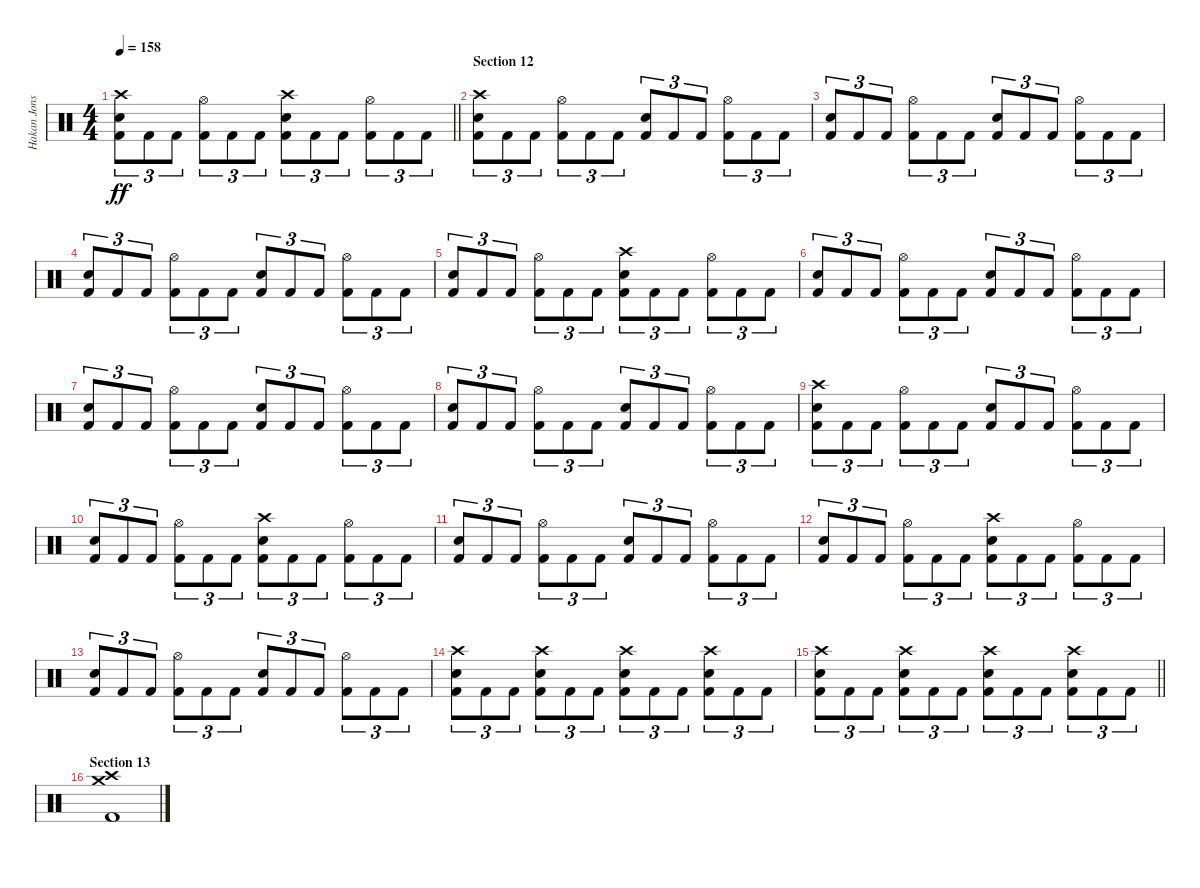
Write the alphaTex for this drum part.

\track ("Hakan Jonsson" "Hakan Jons") {instrument percussion}
\staff {score}
\articulation defaults
\ts (4 4)
\tempo 158
\clef neutral
\barLineRight lightlight
\ks c
("Crash high (hit)" "Electric Snare (hit)" "Kick (hit) 2").8{tu (3 2) dy ff} "Kick (hit) 2".8{tu (3 2)} "Kick (hit) 2".8{tu (3 2)} ("Hi-Hat (open)" "Kick (hit) 2").8{tu (3 2)} "Kick (hit) 2".8{tu (3 2)} "Kick (hit) 2".8{tu (3 2)} ("Crash high (hit)" "Electric Snare (hit)" "Kick (hit) 2").8{tu (3 2)} "Kick (hit) 2".8{tu (3 2)} "Kick (hit) 2".8{tu (3 2)} ("Hi-Hat (open)" "Kick (hit) 2").8{tu (3 2)} "Kick (hit) 2".8{tu (3 2)} "Kick (hit) 2".8{tu (3 2)} |
\section ("" "Section 12")
("Crash high (hit)" "Electric Snare (hit)" "Kick (hit) 2").8{tu (3 2)} "Kick (hit) 2".8{tu (3 2)} "Kick (hit) 2".8{tu (3 2)} ("Hi-Hat (open)" "Kick (hit) 2").8{tu (3 2)} "Kick (hit) 2".8{tu (3 2)} "Kick (hit) 2".8{tu (3 2)} ("Electric Snare (hit)" "Kick (hit) 2").8{tu (3 2)} "Kick (hit) 2".8{tu (3 2)} "Kick (hit) 2".8{tu (3 2)} ("Hi-Hat (open)" "Kick (hit) 2").8{tu (3 2)} "Kick (hit) 2".8{tu (3 2)} "Kick (hit) 2".8{tu (3 2)} |
("Electric Snare (hit)" "Kick (hit) 2").8{tu (3 2)} "Kick (hit) 2".8{tu (3 2)} "Kick (hit) 2".8{tu (3 2)} ("Hi-Hat (open)" "Kick (hit) 2").8{tu (3 2)} "Kick (hit) 2".8{tu (3 2)} "Kick (hit) 2".8{tu (3 2)} ("Electric Snare (hit)" "Kick (hit) 2").8{tu (3 2)} "Kick (hit) 2".8{tu (3 2)} "Kick (hit) 2".8{tu (3 2)} ("Hi-Hat (open)" "Kick (hit) 2").8{tu (3 2)} "Kick (hit) 2".8{tu (3 2)} "Kick (hit) 2".8{tu (3 2)} |
("Electric Snare (hit)" "Kick (hit) 2").8{tu (3 2)} "Kick (hit) 2".8{tu (3 2)} "Kick (hit) 2".8{tu (3 2)} ("Hi-Hat (open)" "Kick (hit) 2").8{tu (3 2)} "Kick (hit) 2".8{tu (3 2)} "Kick (hit) 2".8{tu (3 2)} ("Electric Snare (hit)" "Kick (hit) 2").8{tu (3 2)} "Kick (hit) 2".8{tu (3 2)} "Kick (hit) 2".8{tu (3 2)} ("Hi-Hat (open)" "Kick (hit) 2").8{tu (3 2)} "Kick (hit) 2".8{tu (3 2)} "Kick (hit) 2".8{tu (3 2)} |
("Electric Snare (hit)" "Kick (hit) 2").8{tu (3 2)} "Kick (hit) 2".8{tu (3 2)} "Kick (hit) 2".8{tu (3 2)} ("Hi-Hat (open)" "Kick (hit) 2").8{tu (3 2)} "Kick (hit) 2".8{tu (3 2)} "Kick (hit) 2".8{tu (3 2)} ("Crash high (hit)" "Electric Snare (hit)" "Kick (hit) 2").8{tu (3 2)} "Kick (hit) 2".8{tu (3 2)} "Kick (hit) 2".8{tu (3 2)} ("Hi-Hat (open)" "Kick (hit) 2").8{tu (3 2)} "Kick (hit) 2".8{tu (3 2)} "Kick (hit) 2".8{tu (3 2)} |
("Electric Snare (hit)" "Kick (hit) 2").8{tu (3 2)} "Kick (hit) 2".8{tu (3 2)} "Kick (hit) 2".8{tu (3 2)} ("Hi-Hat (open)" "Kick (hit) 2").8{tu (3 2)} "Kick (hit) 2".8{tu (3 2)} "Kick (hit) 2".8{tu (3 2)} ("Electric Snare (hit)" "Kick (hit) 2").8{tu (3 2)} "Kick (hit) 2".8{tu (3 2)} "Kick (hit) 2".8{tu (3 2)} ("Hi-Hat (open)" "Kick (hit) 2").8{tu (3 2)} "Kick (hit) 2".8{tu (3 2)} "Kick (hit) 2".8{tu (3 2)} |
("Electric Snare (hit)" "Kick (hit) 2").8{tu (3 2)} "Kick (hit) 2".8{tu (3 2)} "Kick (hit) 2".8{tu (3 2)} ("Hi-Hat (open)" "Kick (hit) 2").8{tu (3 2)} "Kick (hit) 2".8{tu (3 2)} "Kick (hit) 2".8{tu (3 2)} ("Electric Snare (hit)" "Kick (hit) 2").8{tu (3 2)} "Kick (hit) 2".8{tu (3 2)} "Kick (hit) 2".8{tu (3 2)} ("Hi-Hat (open)" "Kick (hit) 2").8{tu (3 2)} "Kick (hit) 2".8{tu (3 2)} "Kick (hit) 2".8{tu (3 2)} |
("Electric Snare (hit)" "Kick (hit) 2").8{tu (3 2)} "Kick (hit) 2".8{tu (3 2)} "Kick (hit) 2".8{tu (3 2)} ("Hi-Hat (open)" "Kick (hit) 2").8{tu (3 2)} "Kick (hit) 2".8{tu (3 2)} "Kick (hit) 2".8{tu (3 2)} ("Electric Snare (hit)" "Kick (hit) 2").8{tu (3 2)} "Kick (hit) 2".8{tu (3 2)} "Kick (hit) 2".8{tu (3 2)} ("Hi-Hat (open)" "Kick (hit) 2").8{tu (3 2)} "Kick (hit) 2".8{tu (3 2)} "Kick (hit) 2".8{tu (3 2)} |
("Crash high (hit)" "Electric Snare (hit)" "Kick (hit) 2").8{tu (3 2)} "Kick (hit) 2".8{tu (3 2)} "Kick (hit) 2".8{tu (3 2)} ("Hi-Hat (open)" "Kick (hit) 2").8{tu (3 2)} "Kick (hit) 2".8{tu (3 2)} "Kick (hit) 2".8{tu (3 2)} ("Electric Snare (hit)" "Kick (hit) 2").8{tu (3 2)} "Kick (hit) 2".8{tu (3 2)} "Kick (hit) 2".8{tu (3 2)} ("Hi-Hat (open)" "Kick (hit) 2").8{tu (3 2)} "Kick (hit) 2".8{tu (3 2)} "Kick (hit) 2".8{tu (3 2)} |
("Electric Snare (hit)" "Kick (hit) 2").8{tu (3 2)} "Kick (hit) 2".8{tu (3 2)} "Kick (hit) 2".8{tu (3 2)} ("Hi-Hat (open)" "Kick (hit) 2").8{tu (3 2)} "Kick (hit) 2".8{tu (3 2)} "Kick (hit) 2".8{tu (3 2)} ("Crash high (hit)" "Electric Snare (hit)" "Kick (hit) 2").8{tu (3 2)} "Kick (hit) 2".8{tu (3 2)} "Kick (hit) 2".8{tu (3 2)} ("Hi-Hat (open)" "Kick (hit) 2").8{tu (3 2)} "Kick (hit) 2".8{tu (3 2)} "Kick (hit) 2".8{tu (3 2)} |
("Electric Snare (hit)" "Kick (hit) 2").8{tu (3 2)} "Kick (hit) 2".8{tu (3 2)} "Kick (hit) 2".8{tu (3 2)} ("Hi-Hat (open)" "Kick (hit) 2").8{tu (3 2)} "Kick (hit) 2".8{tu (3 2)} "Kick (hit) 2".8{tu (3 2)} ("Electric Snare (hit)" "Kick (hit) 2").8{tu (3 2)} "Kick (hit) 2".8{tu (3 2)} "Kick (hit) 2".8{tu (3 2)} ("Hi-Hat (open)" "Kick (hit) 2").8{tu (3 2)} "Kick (hit) 2".8{tu (3 2)} "Kick (hit) 2".8{tu (3 2)} |
("Electric Snare (hit)" "Kick (hit) 2").8{tu (3 2)} "Kick (hit) 2".8{tu (3 2)} "Kick (hit) 2".8{tu (3 2)} ("Hi-Hat (open)" "Kick (hit) 2").8{tu (3 2)} "Kick (hit) 2".8{tu (3 2)} "Kick (hit) 2".8{tu (3 2)} ("Crash high (hit)" "Electric Snare (hit)" "Kick (hit) 2").8{tu (3 2)} "Kick (hit) 2".8{tu (3 2)} "Kick (hit) 2".8{tu (3 2)} ("Hi-Hat (open)" "Kick (hit) 2").8{tu (3 2)} "Kick (hit) 2".8{tu (3 2)} "Kick (hit) 2".8{tu (3 2)} |
("Electric Snare (hit)" "Kick (hit) 2").8{tu (3 2)} "Kick (hit) 2".8{tu (3 2)} "Kick (hit) 2".8{tu (3 2)} ("Hi-Hat (open)" "Kick (hit) 2").8{tu (3 2)} "Kick (hit) 2".8{tu (3 2)} "Kick (hit) 2".8{tu (3 2)} ("Electric Snare (hit)" "Kick (hit) 2").8{tu (3 2)} "Kick (hit) 2".8{tu (3 2)} "Kick (hit) 2".8{tu (3 2)} ("Hi-Hat (open)" "Kick (hit) 2").8{tu (3 2)} "Kick (hit) 2".8{tu (3 2)} "Kick (hit) 2".8{tu (3 2)} |
("Crash high (hit)" "Electric Snare (hit)" "Kick (hit) 2").8{tu (3 2)} "Kick (hit) 2".8{tu (3 2)} "Kick (hit) 2".8{tu (3 2)} ("Crash high (hit)" "Electric Snare (hit)" "Kick (hit) 2").8{tu (3 2)} "Kick (hit) 2".8{tu (3 2)} "Kick (hit) 2".8{tu (3 2)} ("Crash high (hit)" "Electric Snare (hit)" "Kick (hit) 2").8{tu (3 2)} "Kick (hit) 2".8{tu (3 2)} "Kick (hit) 2".8{tu (3 2)} ("Crash high (hit)" "Electric Snare (hit)" "Kick (hit) 2").8{tu (3 2)} "Kick (hit) 2".8{tu (3 2)} "Kick (hit) 2".8{tu (3 2)} |
\barLineRight lightlight
("Crash high (hit)" "Electric Snare (hit)" "Kick (hit) 2").8{tu (3 2)} "Kick (hit) 2".8{tu (3 2)} "Kick (hit) 2".8{tu (3 2)} ("Crash high (hit)" "Electric Snare (hit)" "Kick (hit) 2").8{tu (3 2)} "Kick (hit) 2".8{tu (3 2)} "Kick (hit) 2".8{tu (3 2)} ("Crash high (hit)" "Electric Snare (hit)" "Kick (hit) 2").8{tu (3 2)} "Kick (hit) 2".8{tu (3 2)} "Kick (hit) 2".8{tu (3 2)} ("Crash high (hit)" "Electric Snare (hit)" "Kick (hit) 2").8{tu (3 2)} "Kick (hit) 2".8{tu (3 2)} "Kick (hit) 2".8{tu (3 2)} |
\section ("" "Section 13")
("Crash medium (hit)" "Crash high (hit)" "Kick (hit) 2").1
